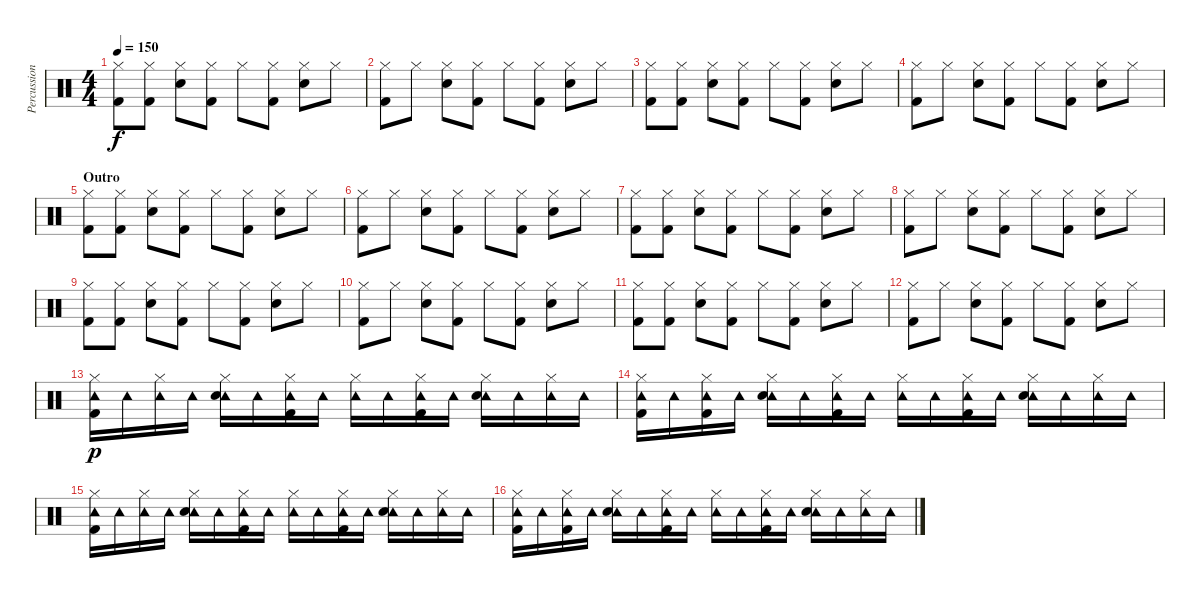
\track ("Percussion" "Percussion") {instrument percussion}
\staff {score}
\articulation defaults
\ts (4 4)
\tempo 150
\clef neutral
\ks c
("Hi-Hat (closed)" "Kick (hit) 2").8{dy f} ("Hi-Hat (closed)" "Kick (hit) 2").8 ("Hi-Hat (closed)" "Electric Snare (hit)").8 ("Hi-Hat (closed)" "Kick (hit) 2").8 "Hi-Hat (closed)".8 ("Hi-Hat (closed)" "Kick (hit) 2").8 ("Hi-Hat (closed)" "Electric Snare (hit)").8 "Hi-Hat (closed)".8 |
("Hi-Hat (closed)" "Kick (hit) 2").8 "Hi-Hat (closed)".8 ("Hi-Hat (closed)" "Electric Snare (hit)").8 ("Hi-Hat (closed)" "Kick (hit) 2").8 "Hi-Hat (closed)".8 ("Hi-Hat (closed)" "Kick (hit) 2").8 ("Hi-Hat (closed)" "Electric Snare (hit)").8 "Hi-Hat (closed)".8 |
("Hi-Hat (closed)" "Kick (hit) 2").8 ("Hi-Hat (closed)" "Kick (hit) 2").8 ("Hi-Hat (closed)" "Electric Snare (hit)").8 ("Hi-Hat (closed)" "Kick (hit) 2").8 "Hi-Hat (closed)".8 ("Hi-Hat (closed)" "Kick (hit) 2").8 ("Hi-Hat (closed)" "Electric Snare (hit)").8 "Hi-Hat (closed)".8 |
("Hi-Hat (closed)" "Kick (hit) 2").8 "Hi-Hat (closed)".8 ("Hi-Hat (closed)" "Electric Snare (hit)").8 ("Hi-Hat (closed)" "Kick (hit) 2").8 "Hi-Hat (closed)".8 ("Hi-Hat (closed)" "Kick (hit) 2").8 ("Hi-Hat (closed)" "Electric Snare (hit)").8 "Hi-Hat (closed)".8 |
\section ("" "Outro")
("Hi-Hat (closed)" "Kick (hit) 2").8 ("Hi-Hat (closed)" "Kick (hit) 2").8 ("Hi-Hat (closed)" "Electric Snare (hit)").8 ("Hi-Hat (closed)" "Kick (hit) 2").8 "Hi-Hat (closed)".8 ("Hi-Hat (closed)" "Kick (hit) 2").8 ("Hi-Hat (closed)" "Electric Snare (hit)").8 "Hi-Hat (closed)".8 |
("Hi-Hat (closed)" "Kick (hit) 2").8 "Hi-Hat (closed)".8 ("Hi-Hat (closed)" "Electric Snare (hit)").8 ("Hi-Hat (closed)" "Kick (hit) 2").8 "Hi-Hat (closed)".8 ("Hi-Hat (closed)" "Kick (hit) 2").8 ("Hi-Hat (closed)" "Electric Snare (hit)").8 "Hi-Hat (closed)".8 |
("Hi-Hat (closed)" "Kick (hit) 2").8 ("Hi-Hat (closed)" "Kick (hit) 2").8 ("Hi-Hat (closed)" "Electric Snare (hit)").8 ("Hi-Hat (closed)" "Kick (hit) 2").8 "Hi-Hat (closed)".8 ("Hi-Hat (closed)" "Kick (hit) 2").8 ("Hi-Hat (closed)" "Electric Snare (hit)").8 "Hi-Hat (closed)".8 |
("Hi-Hat (closed)" "Kick (hit) 2").8 "Hi-Hat (closed)".8 ("Hi-Hat (closed)" "Electric Snare (hit)").8 ("Hi-Hat (closed)" "Kick (hit) 2").8 "Hi-Hat (closed)".8 ("Hi-Hat (closed)" "Kick (hit) 2").8 ("Hi-Hat (closed)" "Electric Snare (hit)").8 "Hi-Hat (closed)".8 |
("Hi-Hat (closed)" "Kick (hit) 2").8 ("Hi-Hat (closed)" "Kick (hit) 2").8 ("Hi-Hat (closed)" "Electric Snare (hit)").8 ("Hi-Hat (closed)" "Kick (hit) 2").8 "Hi-Hat (closed)".8 ("Hi-Hat (closed)" "Kick (hit) 2").8 ("Hi-Hat (closed)" "Electric Snare (hit)").8 "Hi-Hat (closed)".8 |
("Hi-Hat (closed)" "Kick (hit) 2").8 "Hi-Hat (closed)".8 ("Hi-Hat (closed)" "Electric Snare (hit)").8 ("Hi-Hat (closed)" "Kick (hit) 2").8 "Hi-Hat (closed)".8 ("Hi-Hat (closed)" "Kick (hit) 2").8 ("Hi-Hat (closed)" "Electric Snare (hit)").8 "Hi-Hat (closed)".8 |
("Hi-Hat (closed)" "Kick (hit) 2").8 ("Hi-Hat (closed)" "Kick (hit) 2").8 ("Hi-Hat (closed)" "Electric Snare (hit)").8 ("Hi-Hat (closed)" "Kick (hit) 2").8 "Hi-Hat (closed)".8 ("Hi-Hat (closed)" "Kick (hit) 2").8 ("Hi-Hat (closed)" "Electric Snare (hit)").8 "Hi-Hat (closed)".8 |
("Hi-Hat (closed)" "Kick (hit) 2").8 "Hi-Hat (closed)".8 ("Hi-Hat (closed)" "Electric Snare (hit)").8 ("Hi-Hat (closed)" "Kick (hit) 2").8 "Hi-Hat (closed)".8 ("Hi-Hat (closed)" "Kick (hit) 2").8 ("Hi-Hat (closed)" "Electric Snare (hit)").8 "Hi-Hat (closed)".8 |
("Hi-Hat (closed)" "Tambourine (hit)" "Kick (hit) 2").16{dy p} "Tambourine (hit)".16 ("Hi-Hat (closed)" "Tambourine (hit)").16 "Tambourine (hit)".16 ("Hi-Hat (closed)" "Tambourine (hit)" "Electric Snare (hit)").16 "Tambourine (hit)".16 ("Hi-Hat (closed)" "Tambourine (hit)" "Kick (hit) 2").16 "Tambourine (hit)".16 ("Hi-Hat (closed)" "Tambourine (hit)").16 "Tambourine (hit)".16 ("Hi-Hat (closed)" "Tambourine (hit)" "Kick (hit) 2").16 "Tambourine (hit)".16 ("Hi-Hat (closed)" "Tambourine (hit)" "Electric Snare (hit)").16 "Tambourine (hit)".16 ("Hi-Hat (closed)" "Tambourine (hit)").16 "Tambourine (hit)".16 |
("Hi-Hat (closed)" "Tambourine (hit)" "Kick (hit) 2").16 "Tambourine (hit)".16 ("Hi-Hat (closed)" "Tambourine (hit)" "Kick (hit) 2").16 "Tambourine (hit)".16 ("Hi-Hat (closed)" "Tambourine (hit)" "Electric Snare (hit)").16 "Tambourine (hit)".16 ("Hi-Hat (closed)" "Tambourine (hit)" "Kick (hit) 2").16 "Tambourine (hit)".16 ("Hi-Hat (closed)" "Tambourine (hit)").16 "Tambourine (hit)".16 ("Hi-Hat (closed)" "Tambourine (hit)" "Kick (hit) 2").16 "Tambourine (hit)".16 ("Hi-Hat (closed)" "Tambourine (hit)" "Electric Snare (hit)").16 "Tambourine (hit)".16 ("Hi-Hat (closed)" "Tambourine (hit)").16 "Tambourine (hit)".16 |
("Hi-Hat (closed)" "Tambourine (hit)" "Kick (hit) 2").16 "Tambourine (hit)".16 ("Hi-Hat (closed)" "Tambourine (hit)").16 "Tambourine (hit)".16 ("Hi-Hat (closed)" "Tambourine (hit)" "Electric Snare (hit)").16 "Tambourine (hit)".16 ("Hi-Hat (closed)" "Tambourine (hit)" "Kick (hit) 2").16 "Tambourine (hit)".16 ("Hi-Hat (closed)" "Tambourine (hit)").16 "Tambourine (hit)".16 ("Hi-Hat (closed)" "Tambourine (hit)" "Kick (hit) 2").16 "Tambourine (hit)".16 ("Hi-Hat (closed)" "Tambourine (hit)" "Electric Snare (hit)").16 "Tambourine (hit)".16 ("Hi-Hat (closed)" "Tambourine (hit)").16 "Tambourine (hit)".16 |
("Hi-Hat (closed)" "Tambourine (hit)" "Kick (hit) 2").16 "Tambourine (hit)".16 ("Hi-Hat (closed)" "Tambourine (hit)" "Kick (hit) 2").16 "Tambourine (hit)".16 ("Hi-Hat (closed)" "Tambourine (hit)" "Electric Snare (hit)").16 "Tambourine (hit)".16 ("Hi-Hat (closed)" "Tambourine (hit)" "Kick (hit) 2").16 "Tambourine (hit)".16 ("Hi-Hat (closed)" "Tambourine (hit)").16 "Tambourine (hit)".16 ("Hi-Hat (closed)" "Tambourine (hit)" "Kick (hit) 2").16 "Tambourine (hit)".16 ("Hi-Hat (closed)" "Tambourine (hit)" "Electric Snare (hit)").16 "Tambourine (hit)".16 ("Hi-Hat (closed)" "Tambourine (hit)").16 "Tambourine (hit)".16
